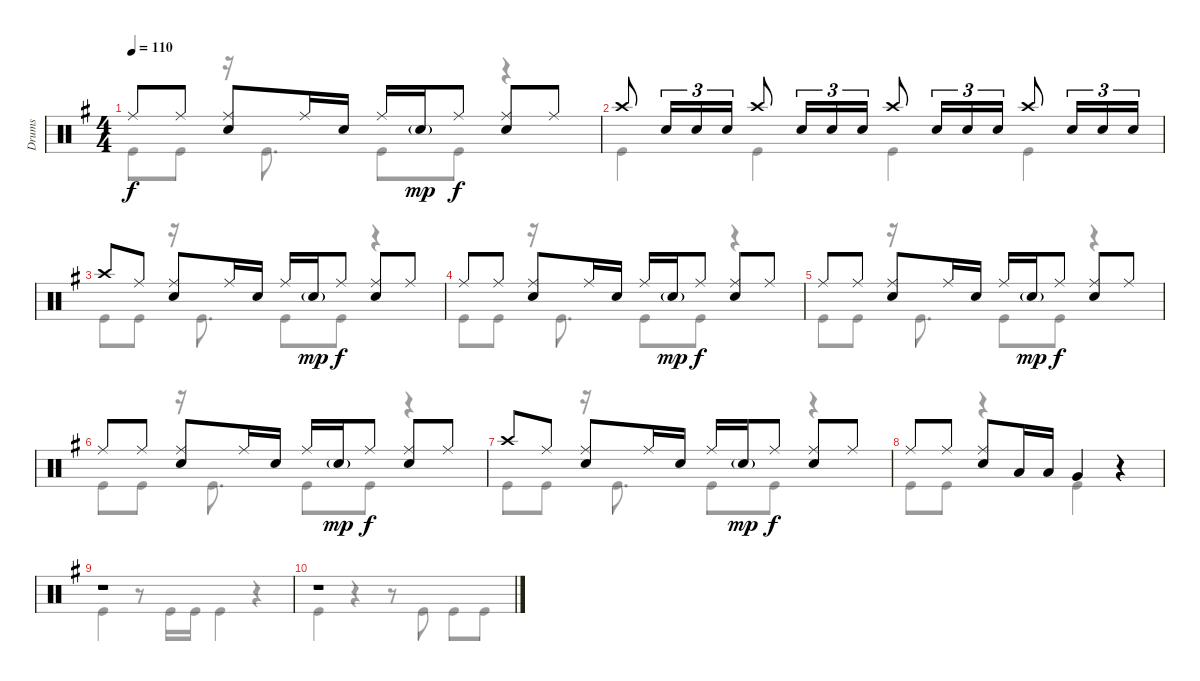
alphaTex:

\track ("Drums" "Drums") {instrument percussion}
\staff {score}
\articulation defaults
\voice
\ts (4 4)
\tempo 110
\clef neutral
\ks g "Ride (middle)".8{dy f} "Ride (middle)".8
("Ride (middle)" "Snare (hit) 2").8 "Ride (middle)".16 "Snare (hit) 2".16 "Ride (middle)".16 "Snare (hit) 2"{g}.16{dy mp} "Ride (middle)".8{dy f} ("Ride (middle)" "Snare (hit) 2").8 "Ride (middle)".8 |
"Crash high (hit)".8 "Snare (hit) 2".16{tu (3 2)} "Snare (hit) 2".16{tu (3 2)} "Snare (hit) 2".16{tu (3 2)} "Crash high (hit)".8 "Snare (hit) 2".16{tu (3 2)} "Snare (hit) 2".16{tu (3 2)} "Snare (hit) 2".16{tu (3 2)} "Crash high (hit)".8 "Snare (hit) 2".16{tu (3 2)} "Snare (hit) 2".16{tu (3 2)} "Snare (hit) 2".16{tu (3 2)} "Crash high (hit)".8 "Snare (hit) 2".16{tu (3 2)} "Snare (hit) 2".16{tu (3 2)} "Snare (hit) 2".16{tu (3 2)} |
"Crash high (hit)".8 "Ride (middle)".8 ("Ride (middle)" "Snare (hit) 2").8 "Ride (middle)".16 "Snare (hit) 2".16 "Ride (middle)".16 "Snare (hit) 2"{g}.16{dy mp} "Ride (middle)".8{dy f} ("Ride (middle)" "Snare (hit) 2").8 "Ride (middle)".8 |
"Ride (middle)".8 "Ride (middle)".8 ("Ride (middle)" "Snare (hit) 2").8 "Ride (middle)".16 "Snare (hit) 2".16 "Ride (middle)".16 "Snare (hit) 2"{g}.16{dy mp} "Ride (middle)".8{dy f} ("Ride (middle)" "Snare (hit) 2").8 "Ride (middle)".8 |
"Ride (middle)".8 "Ride (middle)".8 ("Ride (middle)" "Snare (hit) 2").8 "Ride (middle)".16 "Snare (hit) 2".16 "Ride (middle)".16 "Snare (hit) 2"{g}.16{dy mp} "Ride (middle)".8{dy f} ("Ride (middle)" "Snare (hit) 2").8 "Ride (middle)".8 |
"Ride (middle)".8 "Ride (middle)".8 ("Ride (middle)" "Snare (hit) 2").8 "Ride (middle)".16 "Snare (hit) 2".16 "Ride (middle)".16 "Snare (hit) 2"{g}.16{dy mp} "Ride (middle)".8{dy f} ("Ride (middle)" "Snare (hit) 2").8 "Ride (middle)".8 |
"Crash high (hit)".8 "Ride (middle)".8 ("Ride (middle)" "Snare (hit) 2").8 "Ride (middle)".16 "Snare (hit) 2".16 "Ride (middle)".16 "Snare (hit) 2"{g}.16{dy mp} "Ride (middle)".8{dy f} ("Ride (middle)" "Snare (hit) 2").8 "Ride (middle)".8 |
"Ride (middle)".8 "Ride (middle)".8 ("Ride (middle)" "Snare (hit) 2").8 "Low Tom (hit)".16 "Low Tom (hit)".16 "Very Low Tom (hit)".4 r.4 |
r.1 |
r.1
\voice
\clef neutral
\ottava regular
\simile none
\ks g "Kick (hit)".8{dy f} "Kick (hit)".8
r.16 "Kick (hit)".8{d} "Kick (hit)".8 "Kick (hit)".8 r.4 |
"Kick (hit)".4 "Kick (hit)".4 "Kick (hit)".4 "Kick (hit)".4 |
"Kick (hit)".8 "Kick (hit)".8 r.16 "Kick (hit)".8{d} "Kick (hit)".8 "Kick (hit)".8 r.4 |
"Kick (hit)".8 "Kick (hit)".8 r.16 "Kick (hit)".8{d} "Kick (hit)".8 "Kick (hit)".8 r.4 |
"Kick (hit)".8 "Kick (hit)".8 r.16 "Kick (hit)".8{d} "Kick (hit)".8 "Kick (hit)".8 r.4 |
"Kick (hit)".8 "Kick (hit)".8 r.16 "Kick (hit)".8{d} "Kick (hit)".8 "Kick (hit)".8 r.4 |
"Kick (hit)".8 "Kick (hit)".8 r.16 "Kick (hit)".8{d} "Kick (hit)".8 "Kick (hit)".8 r.4 |
"Kick (hit)".8 "Kick (hit)".8 r.4 "Kick (hit)".4 r.4 |
"Kick (hit)".4 r.8 "Kick (hit)".16 "Kick (hit)".16 "Kick (hit)".4 r.4 |
"Kick (hit)".4 r.4 r.8 "Kick (hit)".8 "Kick (hit)".8 "Kick (hit)".8
